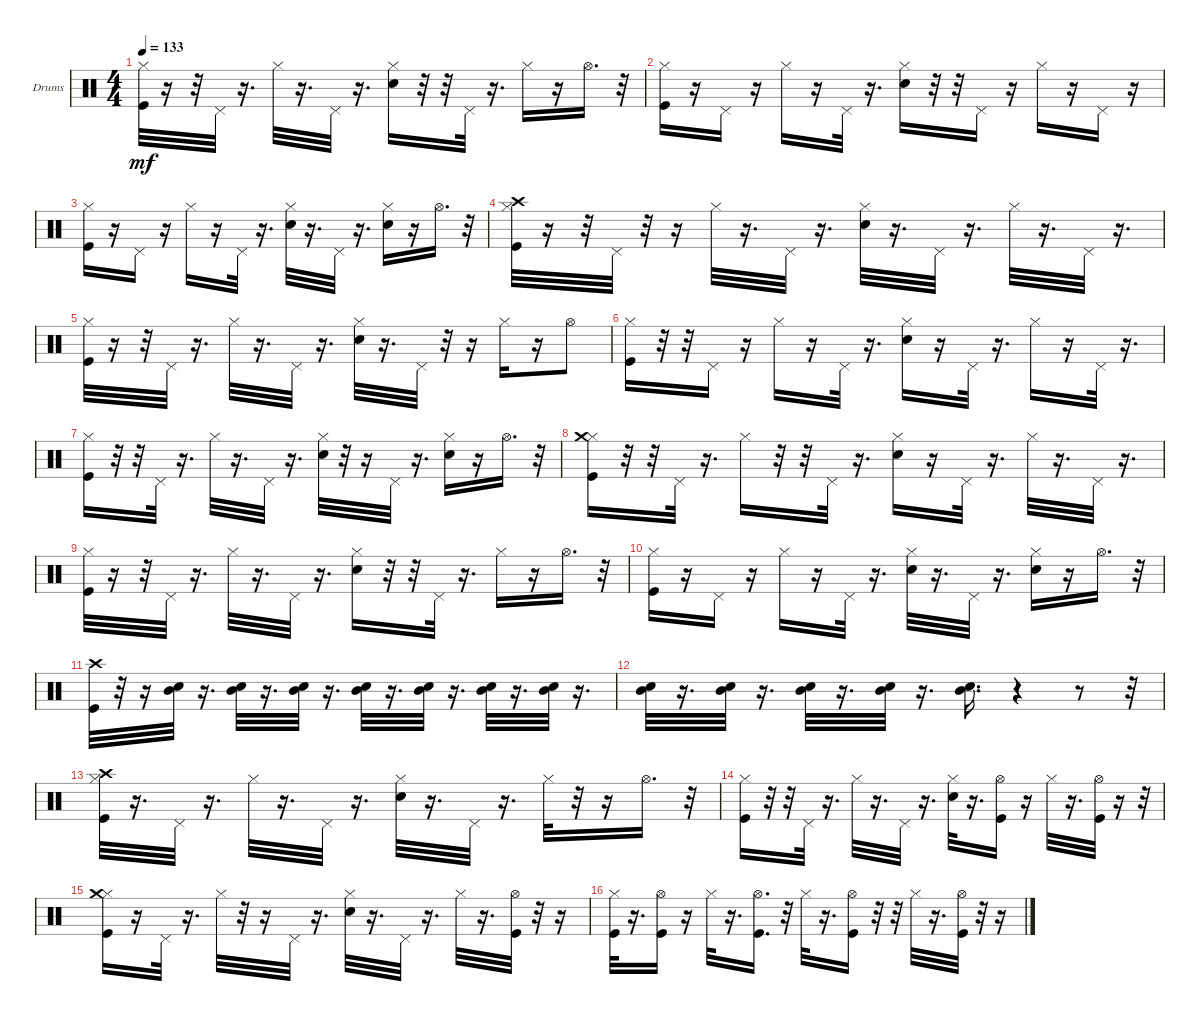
\defaultSystemsLayout 4
\bracketExtendMode groupsimilarinstruments
\firstSystemTrackNameOrientation horizontal
\otherSystemsTrackNameOrientation horizontal
\track ("Drumkit" "Drums") {instrument percussion}
\staff {score}
\articulation defaults
\ts (4 4)
\tempo 133
\clef neutral
\ks c
("Kick (hit)" "Hi-Hat (closed)").32{dy mf} r.16 r.32 "Pedal Hi-Hat (hit)".32 r.16{d} "Hi-Hat (closed)".32 r.16{d} "Pedal Hi-Hat (hit)".32 r.16{d} ("Snare (hit) 2" "Hi-Hat (closed)").16 r.32 r.32 "Pedal Hi-Hat (hit)".32 r.16{d} "Hi-Hat (closed)".16 r.16 "Hi-Hat (open)".16{d} r.32 |
("Kick (hit)" "Hi-Hat (closed)").16 r.16 "Pedal Hi-Hat (hit)".16 r.16 "Hi-Hat (closed)".16 r.16 "Pedal Hi-Hat (hit)".32 r.16{d} ("Snare (hit) 2" "Hi-Hat (closed)").16 r.32 r.32 "Pedal Hi-Hat (hit)".16 r.16 "Hi-Hat (closed)".16 r.16 "Pedal Hi-Hat (hit)".16 r.16 |
("Kick (hit)" "Hi-Hat (closed)").16 r.16 "Pedal Hi-Hat (hit)".16 r.16 "Hi-Hat (closed)".16 r.16 "Pedal Hi-Hat (hit)".32 r.16{d} ("Snare (hit) 2" "Hi-Hat (closed)").32 r.16{d} "Pedal Hi-Hat (hit)".32 r.16{d} ("Snare (hit) 2" "Hi-Hat (closed)").16 r.16 "Hi-Hat (open)".16{d} r.32 |
("Kick (hit)" "Hi-Hat (closed)" "Crash high (hit)").32 r.16 r.32 "Pedal Hi-Hat (hit)".32 r.32 r.16 "Hi-Hat (closed)".32 r.16{d} "Pedal Hi-Hat (hit)".32 r.16{d} ("Snare (hit) 2" "Hi-Hat (closed)").32 r.16{d} "Pedal Hi-Hat (hit)".32 r.16{d} "Hi-Hat (closed)".32 r.16{d} "Pedal Hi-Hat (hit)".32 r.16{d} |
("Kick (hit)" "Hi-Hat (closed)").32 r.16 r.32 "Pedal Hi-Hat (hit)".32 r.16{d} "Hi-Hat (closed)".32 r.16{d} "Pedal Hi-Hat (hit)".32 r.16{d} ("Snare (hit) 2" "Hi-Hat (closed)").32 r.16{d} "Pedal Hi-Hat (hit)".32 r.32 r.16 "Hi-Hat (closed)".16 r.16 "Hi-Hat (open)".8 |
("Kick (hit)" "Hi-Hat (closed)").16 r.32 r.32 "Pedal Hi-Hat (hit)".16 r.16 "Hi-Hat (closed)".16 r.16 "Pedal Hi-Hat (hit)".32 r.16{d} ("Snare (hit) 2" "Hi-Hat (closed)").16 r.16 "Pedal Hi-Hat (hit)".32 r.16{d} "Hi-Hat (closed)".16 r.16 "Pedal Hi-Hat (hit)".32 r.16{d} |
("Kick (hit)" "Hi-Hat (closed)").16 r.32 r.32 "Pedal Hi-Hat (hit)".32 r.16{d} "Hi-Hat (closed)".32 r.16{d} "Pedal Hi-Hat (hit)".32 r.16{d} ("Snare (hit) 2" "Hi-Hat (closed)").32 r.32 r.16 "Pedal Hi-Hat (hit)".32 r.16{d} ("Snare (hit) 2" "Hi-Hat (closed)").16 r.16 "Hi-Hat (open)".16{d} r.32 |
("Kick (hit)" "Hi-Hat (closed)" "Crash medium (hit)").16 r.32 r.32 "Pedal Hi-Hat (hit)".32 r.16{d} "Hi-Hat (closed)".16 r.32 r.32 "Pedal Hi-Hat (hit)".32 r.16{d} ("Snare (hit) 2" "Hi-Hat (closed)").16 r.16 "Pedal Hi-Hat (hit)".32 r.16{d} "Hi-Hat (closed)".32 r.16{d} "Pedal Hi-Hat (hit)".32 r.16{d} |
("Kick (hit)" "Hi-Hat (closed)").32 r.16 r.32 "Pedal Hi-Hat (hit)".32 r.16{d} "Hi-Hat (closed)".32 r.16{d} "Pedal Hi-Hat (hit)".32 r.16{d} ("Snare (hit) 2" "Hi-Hat (closed)").16 r.32 r.32 "Pedal Hi-Hat (hit)".32 r.16{d} "Hi-Hat (closed)".16 r.16 "Hi-Hat (open)".16{d} r.32 |
("Kick (hit)" "Hi-Hat (closed)").16 r.16 "Pedal Hi-Hat (hit)".16 r.16 "Hi-Hat (closed)".16 r.16 "Pedal Hi-Hat (hit)".32 r.16{d} ("Snare (hit) 2" "Hi-Hat (closed)").32 r.16{d} "Pedal Hi-Hat (hit)".32 r.16{d} ("Snare (hit) 2" "Hi-Hat (closed)").16 r.16 "Hi-Hat (open)".16{d} r.32 |
("Crash high (hit)" "Kick (hit)").32 r.32 r.16 ("Snare (hit) 2" "Mid Tom (hit)").32 r.16{d} ("Snare (hit) 2" "Mid Tom (hit)").32 r.16{d} ("Snare (hit) 2" "Mid Tom (hit)").32 r.16{d} ("Snare (hit) 2" "Mid Tom (hit)").32 r.16{d} ("Snare (hit) 2" "Mid Tom (hit)").32 r.16{d} ("Snare (hit) 2" "Mid Tom (hit)").32 r.16{d} ("Snare (hit) 2" "Mid Tom (hit)").32 r.16{d} |
("Snare (hit) 2" "Mid Tom (hit)").32 r.16{d} ("Mid Tom (hit)" "Snare (hit) 2").32 r.16{d} ("Mid Tom (hit)" "Snare (hit) 2").32 r.16{d} ("Mid Tom (hit)" "Snare (hit) 2").32 r.16{d} ("Snare (hit) 2" "Mid Tom (hit)").16{d} r.4 r.8 r.32 |
("Kick (hit)" "Hi-Hat (closed)" "Crash high (hit)").32 r.16{d} "Pedal Hi-Hat (hit)".32 r.16{d} "Hi-Hat (closed)".32 r.16{d} "Pedal Hi-Hat (hit)".32 r.16{d} ("Snare (hit) 2" "Hi-Hat (closed)").32 r.16{d} "Pedal Hi-Hat (hit)".32 r.16{d} "Hi-Hat (closed)".32 r.32 r.16 "Hi-Hat (open)".16{d} r.32 |
("Kick (hit)" "Hi-Hat (closed)").16 r.32 r.32 "Pedal Hi-Hat (hit)".32 r.16{d} "Hi-Hat (closed)".32 r.16{d} "Pedal Hi-Hat (hit)".32 r.16{d} ("Snare (hit) 2" "Hi-Hat (closed)").32 r.16{d} ("Kick (hit)" "Hi-Hat (open)").16 r.16 "Hi-Hat (closed)".32 r.16{d} ("Kick (hit)" "Hi-Hat (open)").32 r.16 r.32 |
("Kick (hit)" "Hi-Hat (closed)" "Crash medium (hit)").16 r.16 "Pedal Hi-Hat (hit)".32 r.16{d} "Hi-Hat (closed)".32 r.32 r.16 "Pedal Hi-Hat (hit)".32 r.16{d} ("Snare (hit) 2" "Hi-Hat (closed)").32 r.16{d} "Pedal Hi-Hat (hit)".32 r.16{d} "Hi-Hat (closed)".32 r.16{d} ("Kick (hit)" "Hi-Hat (open)").32 r.32 r.16 |
("Kick (hit)" "Hi-Hat (closed)").32 r.16{d} ("Kick (hit)" "Hi-Hat (open)").16 r.16 "Hi-Hat (closed)".32 r.16{d} ("Kick (hit)" "Hi-Hat (open)").16{d} r.32 "Hi-Hat (closed)".32 r.16{d} ("Kick (hit)" "Hi-Hat (open)").16 r.32 r.32 "Hi-Hat (closed)".32 r.16{d} ("Kick (hit)" "Hi-Hat (open)").32 r.32 r.16
